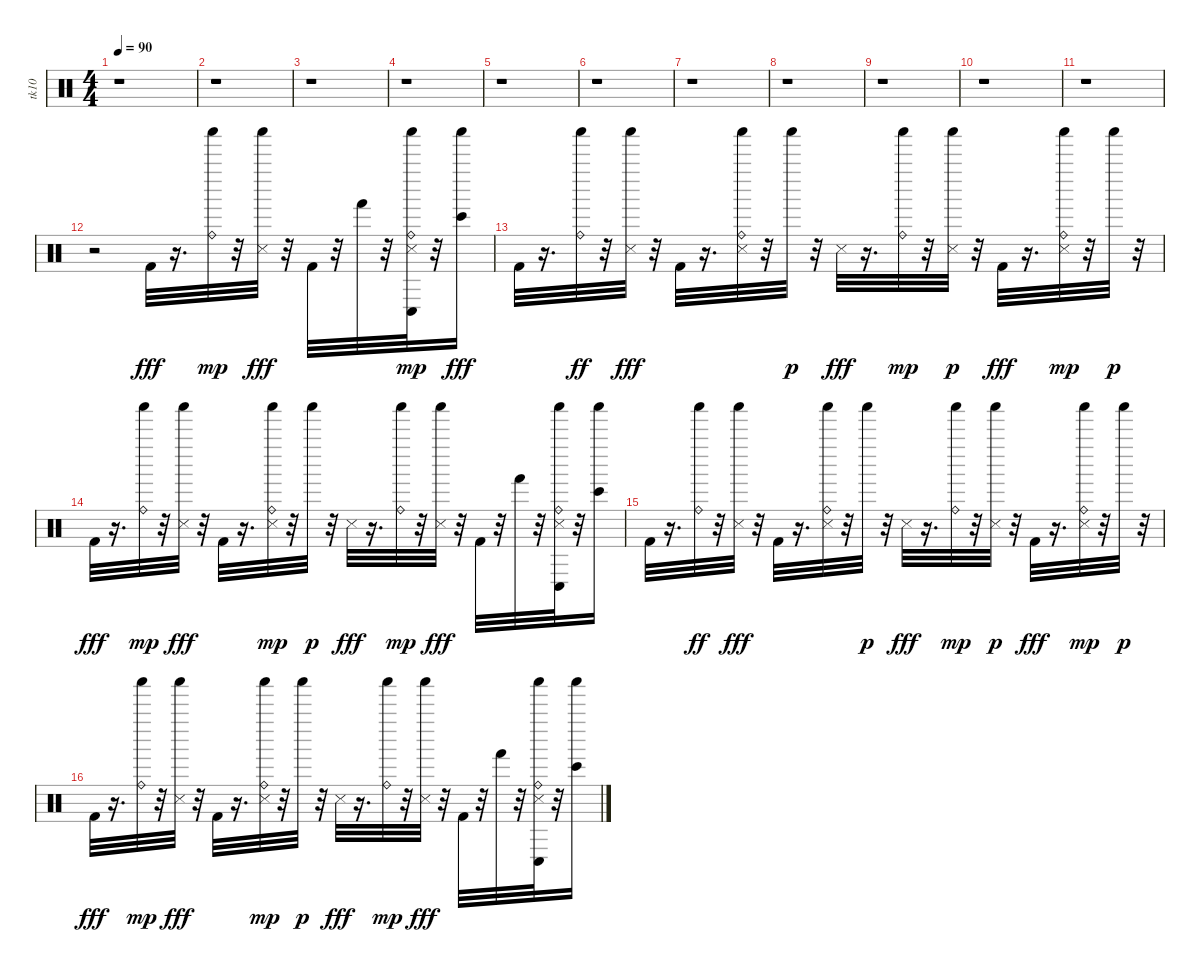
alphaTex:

\track ("tk10" "tk10") {instrument percussion}
\staff {score}
\articulation defaults
\ts (4 4)
\tempo 90
\clef neutral
\ks c
r.1{dy fff} |
r.1 |
r.1 |
r.1 |
r.1 |
r.1 |
r.1 |
r.1 |
r.1 |
r.1 |
r.1 |
r.2 "Kick (hit) 2".32{balance 8} r.16{d} ("Ride (bell)" "Shaker (hit)").32{dy mp} r.32 ("Shaker (hit)" "Snare (side stick) 3").32{dy fff} r.32 "Kick (hit) 2".32 r.32 "Hand (hit)".32 r.32 ("Ride (bell)" "Snare (side stick) 3" "Conga low (hit)" "Shaker (hit)").32{dy mp} r.32 ("Shaker (hit)" "Bongo High (hit)").16{dy fff} |
"Kick (hit) 2".32 r.16{d} ("Shaker (hit)" "Ride (bell)").32{dy ff} r.32 ("Shaker (hit)" "Snare (side stick) 3").32{dy fff} r.32 "Kick (hit) 2".32 r.16{d} ("Shaker (hit)" "Ride (bell)" "Snare (side stick) 3").32 r.32 "Shaker (hit)".32{dy p} r.32 "Snare (side stick) 3".32{dy fff} r.16{d} ("Ride (bell)" "Shaker (hit)").32{dy mp} r.32 ("Snare (side stick) 3" "Shaker (hit)").32{dy p} r.32 "Kick (hit) 2".32{dy fff} r.16{d} ("Ride (bell)" "Snare (side stick) 3" "Shaker (hit)").32{dy mp} r.32 "Shaker (hit)".32{dy p} r.32 |
"Kick (hit) 2".32{dy fff} r.16{d} ("Ride (bell)" "Shaker (hit)").32{dy mp} r.32 ("Shaker (hit)" "Snare (side stick) 3").32{dy fff} r.32 "Kick (hit) 2".32 r.16{d} ("Ride (bell)" "Snare (side stick) 3" "Shaker (hit)").32{dy mp} r.32 "Shaker (hit)".32{dy p} r.32 "Snare (side stick) 3".32{dy fff} r.16{d} ("Ride (bell)" "Shaker (hit)").32{dy mp} r.32 ("Shaker (hit)" "Snare (side stick) 3").32{dy fff} r.32 "Kick (hit) 2".32 r.32 "Hand (hit)".32 r.32 ("Shaker (hit)" "Ride (bell)" "Snare (side stick) 3" "Conga low (hit)").32 r.32 ("Shaker (hit)" "Bongo High (hit)").16 |
"Kick (hit) 2".32 r.16{d} ("Shaker (hit)" "Ride (bell)").32{dy ff} r.32 ("Shaker (hit)" "Snare (side stick) 3").32{dy fff} r.32 "Kick (hit) 2".32 r.16{d} ("Shaker (hit)" "Ride (bell)" "Snare (side stick) 3").32 r.32 "Shaker (hit)".32{dy p} r.32 "Snare (side stick) 3".32{dy fff} r.16{d} ("Ride (bell)" "Shaker (hit)").32{dy mp} r.32 ("Snare (side stick) 3" "Shaker (hit)").32{dy p} r.32 "Kick (hit) 2".32{dy fff} r.16{d} ("Ride (bell)" "Snare (side stick) 3" "Shaker (hit)").32{dy mp} r.32 "Shaker (hit)".32{dy p} r.32 |
"Kick (hit) 2".32{dy fff} r.16{d} ("Ride (bell)" "Shaker (hit)").32{dy mp} r.32 ("Shaker (hit)" "Snare (side stick) 3").32{dy fff} r.32 "Kick (hit) 2".32 r.16{d} ("Ride (bell)" "Snare (side stick) 3" "Shaker (hit)").32{dy mp} r.32 "Shaker (hit)".32{dy p} r.32 "Snare (side stick) 3".32{dy fff} r.16{d} ("Ride (bell)" "Shaker (hit)").32{dy mp} r.32 ("Shaker (hit)" "Snare (side stick) 3").32{dy fff} r.32 "Kick (hit) 2".32 r.32 "Hand (hit)".32 r.32 ("Shaker (hit)" "Ride (bell)" "Snare (side stick) 3" "Conga low (hit)").32 r.32 ("Shaker (hit)" "Bongo High (hit)").16
